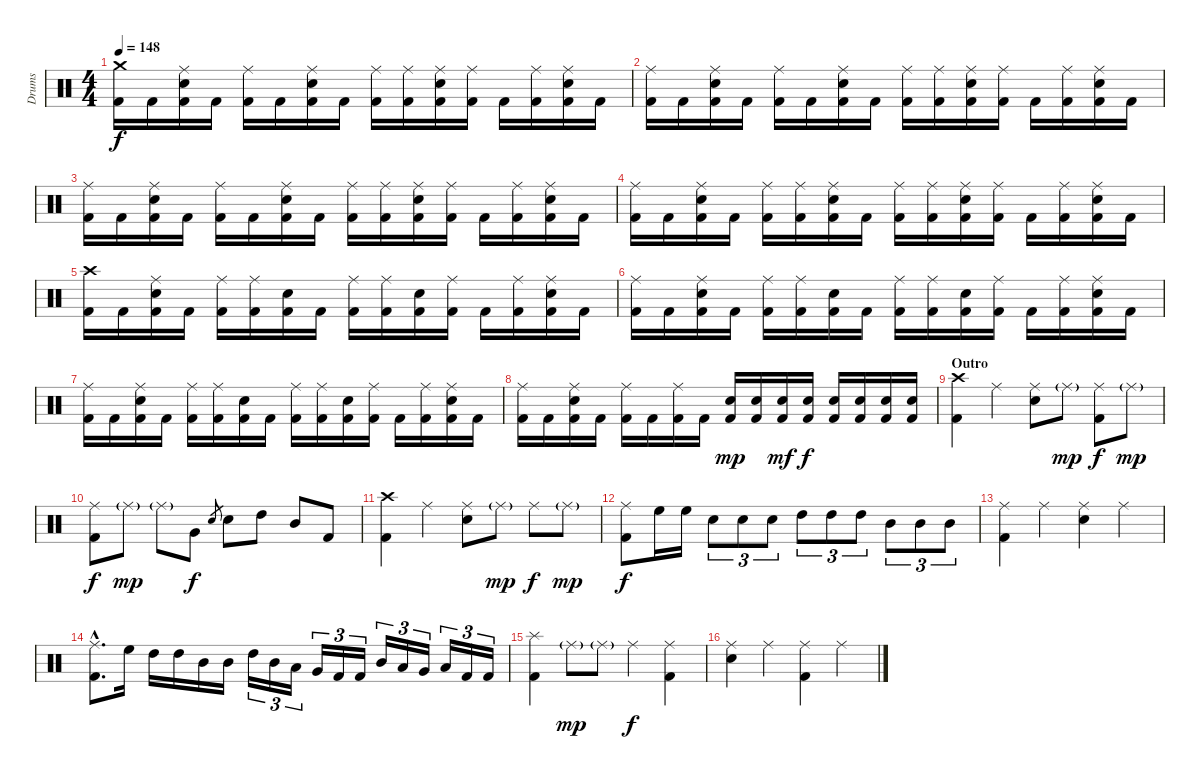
\track ("Drums" "Drums") {instrument percussion}
\staff {score}
\articulation defaults
\ts (4 4)
\tempo 148
\clef neutral
\ks c
("Crash medium (hit)" "Kick (hit) 2").16{dy f} "Kick (hit) 2".16 ("Ride (middle)" "Snare (hit) 2" "Kick (hit) 2").16 "Kick (hit) 2".16 ("Ride (middle)" "Kick (hit) 2").16 "Kick (hit) 2".16 ("Ride (middle)" "Snare (hit) 2" "Kick (hit) 2").16 "Kick (hit) 2".16 ("Ride (middle)" "Kick (hit) 2").16 ("Ride (middle)" "Kick (hit) 2").16 ("Ride (middle)" "Snare (hit) 2" "Kick (hit) 2").16 ("Ride (middle)" "Kick (hit) 2").16 "Kick (hit) 2".16 ("Ride (middle)" "Kick (hit) 2").16 ("Ride (middle)" "Snare (hit) 2" "Kick (hit) 2").16 "Kick (hit) 2".16 |
("Ride (middle)" "Kick (hit) 2").16 "Kick (hit) 2".16 ("Ride (middle)" "Snare (hit) 2" "Kick (hit) 2").16 "Kick (hit) 2".16 ("Ride (middle)" "Kick (hit) 2").16 "Kick (hit) 2".16 ("Ride (middle)" "Snare (hit) 2" "Kick (hit) 2").16 "Kick (hit) 2".16 ("Ride (middle)" "Kick (hit) 2").16 ("Ride (middle)" "Kick (hit) 2").16 ("Ride (middle)" "Snare (hit) 2" "Kick (hit) 2").16 ("Ride (middle)" "Kick (hit) 2").16 "Kick (hit) 2".16 ("Ride (middle)" "Kick (hit) 2").16 ("Ride (middle)" "Snare (hit) 2" "Kick (hit) 2").16 "Kick (hit) 2".16 |
("Ride (middle)" "Kick (hit) 2").16 "Kick (hit) 2".16 ("Ride (middle)" "Snare (hit) 2" "Kick (hit) 2").16 "Kick (hit) 2".16 ("Ride (middle)" "Kick (hit) 2").16 "Kick (hit) 2".16 ("Ride (middle)" "Snare (hit) 2" "Kick (hit) 2").16 "Kick (hit) 2".16 ("Ride (middle)" "Kick (hit) 2").16 ("Ride (middle)" "Kick (hit) 2").16 ("Ride (middle)" "Snare (hit) 2" "Kick (hit) 2").16 ("Ride (middle)" "Kick (hit) 2").16 "Kick (hit) 2".16 ("Ride (middle)" "Kick (hit) 2").16 ("Ride (middle)" "Snare (hit) 2" "Kick (hit) 2").16 "Kick (hit) 2".16 |
("Ride (middle)" "Kick (hit) 2").16 "Kick (hit) 2".16 ("Ride (middle)" "Snare (hit) 2" "Kick (hit) 2").16 "Kick (hit) 2".16 ("Ride (middle)" "Kick (hit) 2").16 ("Ride (middle)" "Kick (hit) 2").16 ("Ride (middle)" "Snare (hit) 2" "Kick (hit) 2").16 "Kick (hit) 2".16 ("Ride (middle)" "Kick (hit) 2").16 ("Ride (middle)" "Kick (hit) 2").16 ("Ride (middle)" "Snare (hit) 2" "Kick (hit) 2").16 ("Ride (middle)" "Kick (hit) 2").16 "Kick (hit) 2".16 ("Ride (middle)" "Kick (hit) 2").16 ("Ride (middle)" "Snare (hit) 2" "Kick (hit) 2").16 "Kick (hit) 2".16 |
("Crash high (hit)" "Kick (hit) 2").16 "Kick (hit) 2".16 ("Ride (middle)" "Snare (hit) 2" "Kick (hit) 2").16 "Kick (hit) 2".16 ("Ride (middle)" "Kick (hit) 2").16 ("Ride (middle)" "Kick (hit) 2").16 ("Snare (hit) 2" "Kick (hit) 2").16 "Kick (hit) 2".16 ("Ride (middle)" "Kick (hit) 2").16 ("Ride (middle)" "Kick (hit) 2").16 ("Snare (hit) 2" "Kick (hit) 2").16 ("Ride (middle)" "Kick (hit) 2").16 "Kick (hit) 2".16 ("Ride (middle)" "Kick (hit) 2").16 ("Ride (middle)" "Snare (hit) 2" "Kick (hit) 2").16 "Kick (hit) 2".16 |
("Ride (middle)" "Kick (hit) 2").16 "Kick (hit) 2".16 ("Ride (middle)" "Snare (hit) 2" "Kick (hit) 2").16 "Kick (hit) 2".16 ("Ride (middle)" "Kick (hit) 2").16 ("Ride (middle)" "Kick (hit) 2").16 ("Snare (hit) 2" "Kick (hit) 2").16 "Kick (hit) 2".16 ("Ride (middle)" "Kick (hit) 2").16 ("Ride (middle)" "Kick (hit) 2").16 ("Snare (hit) 2" "Kick (hit) 2").16 ("Ride (middle)" "Kick (hit) 2").16 "Kick (hit) 2".16 ("Ride (middle)" "Kick (hit) 2").16 ("Ride (middle)" "Snare (hit) 2" "Kick (hit) 2").16 "Kick (hit) 2".16 |
("Ride (middle)" "Kick (hit) 2").16 "Kick (hit) 2".16 ("Ride (middle)" "Snare (hit) 2" "Kick (hit) 2").16 "Kick (hit) 2".16 ("Ride (middle)" "Kick (hit) 2").16 ("Ride (middle)" "Kick (hit) 2").16 ("Snare (hit) 2" "Kick (hit) 2").16 "Kick (hit) 2".16 ("Ride (middle)" "Kick (hit) 2").16 ("Ride (middle)" "Kick (hit) 2").16 ("Snare (hit) 2" "Kick (hit) 2").16 ("Ride (middle)" "Kick (hit) 2").16 "Kick (hit) 2".16 ("Ride (middle)" "Kick (hit) 2").16 ("Ride (middle)" "Snare (hit) 2" "Kick (hit) 2").16 "Kick (hit) 2".16 |
("Ride (middle)" "Kick (hit) 2").16 "Kick (hit) 2".16 ("Ride (middle)" "Snare (hit) 2" "Kick (hit) 2").16 "Kick (hit) 2".16 ("Ride (middle)" "Kick (hit) 2").16 "Kick (hit) 2".16 ("Ride (middle)" "Kick (hit) 2").16 "Kick (hit) 2".16 ("Snare (hit) 2" "Kick (hit) 2").16{dy mp} ("Snare (hit) 2" "Kick (hit) 2").16 ("Snare (hit) 2" "Kick (hit) 2").16{dy mf} ("Snare (hit) 2" "Kick (hit) 2").16{dy f} ("Snare (hit) 2" "Kick (hit) 2").16 ("Snare (hit) 2" "Kick (hit) 2").16 ("Snare (hit) 2" "Kick (hit) 2").16 ("Snare (hit) 2" "Kick (hit) 2").16 |
\section ("" "Outro")
("Crash high (hit)" "Kick (hit) 2").4 "Ride (middle)".4 ("Ride (middle)" "Snare (hit) 2").8 "Ride (middle)"{g}.8{dy mp} ("Ride (middle)" "Kick (hit) 2").8{dy f} "Ride (middle)"{g}.8{dy mp} |
("Ride (middle)" "Kick (hit) 2").8{dy f} "Ride (middle)"{g}.8{dy mp} "Ride (middle)"{g}.8 "Very Low Tom (hit)".8{dy f} "Snare (hit) 2".8{gr} "Snare (hit) 2".8 "High Tom (hit)".8 "Mid Tom (hit)".8 "Kick (hit) 2".8 |
("Crash high (hit)" "Kick (hit) 2").4 "Ride (middle)".4 ("Ride (middle)" "Snare (hit) 2").8 "Ride (middle)"{g}.8{dy mp} "Ride (middle)".8{dy f} "Ride (middle)"{g}.8{dy mp} |
("Ride (middle)" "Kick (hit) 2").8{dy f} "High Floor Tom (hit)".16 "High Floor Tom (hit)".16 "Snare (hit) 2".8{tu (3 2)} "Snare (hit) 2".8{tu (3 2)} "Snare (hit) 2".8{tu (3 2)} "High Tom (hit)".8{tu (3 2)} "High Tom (hit)".8{tu (3 2)} "High Tom (hit)".8{tu (3 2)} "Mid Tom (hit)".8{tu (3 2)} "Mid Tom (hit)".8{tu (3 2)} "Mid Tom (hit)".8{tu (3 2)} |
("Ride (middle)" "Kick (hit) 2").4 "Ride (middle)".4 ("Ride (middle)" "Snare (hit) 2").4 "Ride (middle)".4 |
("Ride (middle)"{hac} "Kick (hit) 2"{hac}).8{d} "High Floor Tom (hit)".16 "High Tom (hit)".16 "High Tom (hit)".16 "Mid Tom (hit)".16 "Mid Tom (hit)".16 "High Tom (hit)".16{tu (3 2)} "Mid Tom (hit)".16{tu (3 2)} "Low Tom (hit)".16{tu (3 2)} "Very Low Tom (hit)".16{tu (3 2)} "Kick (hit) 2".16{tu (3 2)} "Kick (hit) 2".16{tu (3 2)} "Mid Tom (hit)".16{tu (3 2)} "Low Tom (hit)".16{tu (3 2)} "Very Low Tom (hit)".16{tu (3 2)} "Low Floor Tom (hit)".16{tu (3 2)} "Kick (hit) 2".16{tu (3 2)} "Kick (hit) 2".16{tu (3 2)} |
("Splash (hit)" "Kick (hit) 2").4 "Ride (middle)"{g}.8{dy mp} "Ride (middle)"{g}.8 "Ride (middle)".4{dy f} ("Ride (middle)" "Kick (hit) 2").4 |
("Ride (middle)" "Snare (hit) 2").4 "Ride (middle)".4 ("Ride (middle)" "Kick (hit) 2").4 "Ride (middle)".4
